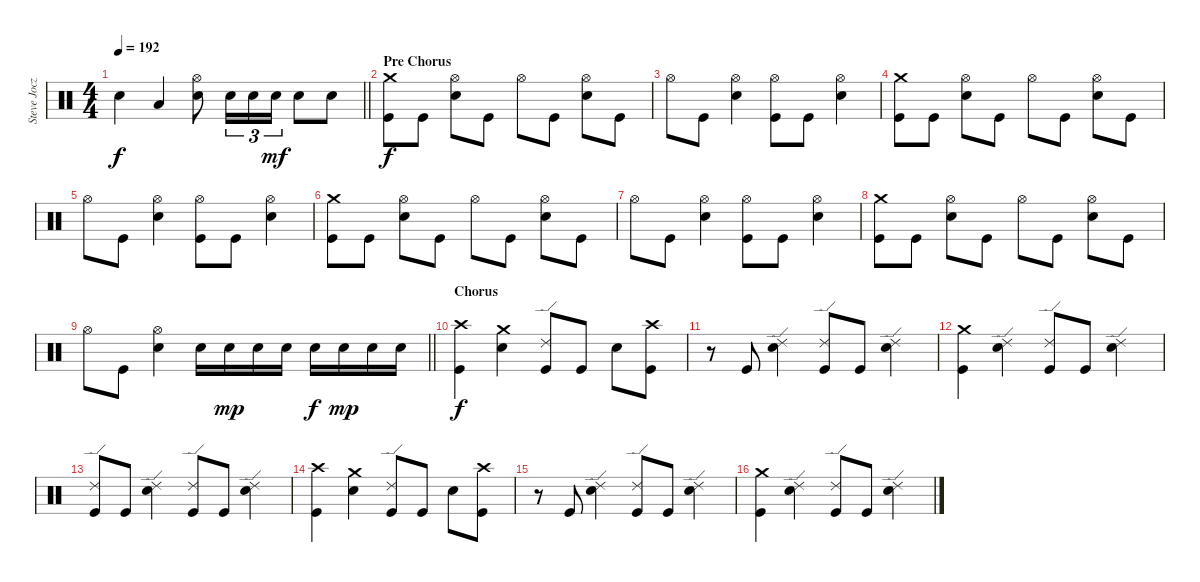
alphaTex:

\track ("Steve Jocz" "Steve Jocz") {instrument percussion}
\staff {score}
\articulation defaults
\ts (4 4)
\tempo 192
\clef neutral
\barLineRight lightlight
\ks c "Electric Snare (hit)".4{dy f volume 15} "Low Tom (hit)".4
("Hi-Hat (open)" "Electric Snare (hit)").8 "Electric Snare (hit)".16{tu (3 2)} "Electric Snare (hit)".16{tu (3 2)} "Electric Snare (hit)".16{tu (3 2) dy mf} "Electric Snare (hit)".8 "Electric Snare (hit)".8 |
\section ("" "Pre Chorus")
("Crash medium (hit)" "Kick (hit)").8{dy f} "Kick (hit)".8 ("Hi-Hat (open)" "Electric Snare (hit)").8 "Kick (hit)".8 "Hi-Hat (open)".8 "Kick (hit)".8 ("Hi-Hat (open)" "Electric Snare (hit)").8 "Kick (hit)".8 |
"Hi-Hat (open)".8 "Kick (hit)".8 ("Hi-Hat (open)" "Electric Snare (hit)").4 ("Hi-Hat (open)" "Kick (hit)").8 "Kick (hit)".8 ("Hi-Hat (open)" "Electric Snare (hit)").4 |
("Crash medium (hit)" "Kick (hit)").8 "Kick (hit)".8 ("Hi-Hat (open)" "Electric Snare (hit)").8 "Kick (hit)".8 "Hi-Hat (open)".8 "Kick (hit)".8 ("Hi-Hat (open)" "Electric Snare (hit)").8 "Kick (hit)".8 |
"Hi-Hat (open)".8 "Kick (hit)".8 ("Hi-Hat (open)" "Electric Snare (hit)").4 ("Hi-Hat (open)" "Kick (hit)").8 "Kick (hit)".8 ("Hi-Hat (open)" "Electric Snare (hit)").4 |
("Crash medium (hit)" "Kick (hit)").8 "Kick (hit)".8 ("Hi-Hat (open)" "Electric Snare (hit)").8 "Kick (hit)".8 "Hi-Hat (open)".8 "Kick (hit)".8 ("Hi-Hat (open)" "Electric Snare (hit)").8 "Kick (hit)".8 |
"Hi-Hat (open)".8 "Kick (hit)".8 ("Hi-Hat (open)" "Electric Snare (hit)").4 ("Hi-Hat (open)" "Kick (hit)").8 "Kick (hit)".8 ("Hi-Hat (open)" "Electric Snare (hit)").4 |
("Crash medium (hit)" "Kick (hit)").8 "Kick (hit)".8 ("Hi-Hat (open)" "Electric Snare (hit)").8 "Kick (hit)".8 "Hi-Hat (open)".8 "Kick (hit)".8 ("Hi-Hat (open)" "Electric Snare (hit)").8 "Kick (hit)".8 |
\barLineRight lightlight "Hi-Hat (open)".8 "Kick (hit)".8
("Hi-Hat (open)" "Electric Snare (hit)").4 "Electric Snare (hit)".16 "Electric Snare (hit)".16{dy mp} "Electric Snare (hit)".16 "Electric Snare (hit)".16 "Electric Snare (hit)".16{dy f} "Electric Snare (hit)".16{dy mp} "Electric Snare (hit)".16 "Electric Snare (hit)".16 |
\section ("" "Chorus")
("Crash high (hit)" "Kick (hit)").4{dy f} ("Crash medium (hit)" "Electric Snare (hit)").4 ("Ride (edge) 2" "Kick (hit)").8 "Kick (hit)".8 "Electric Snare (hit)".8 ("Crash high (hit)" "Kick (hit)").8 |
r.8 "Kick (hit)".8 ("Ride (edge) 2" "Electric Snare (hit)").4 ("Ride (edge) 2" "Kick (hit)").8 "Kick (hit)".8 ("Ride (edge) 2" "Electric Snare (hit)").4 |
("Crash medium (hit)" "Kick (hit)").4 ("Ride (edge) 2" "Electric Snare (hit)").4 ("Ride (edge) 2" "Kick (hit)").8 "Kick (hit)".8 ("Ride (edge) 2" "Electric Snare (hit)").4 |
("Ride (edge) 2" "Kick (hit)").8 "Kick (hit)".8 ("Ride (edge) 2" "Electric Snare (hit)").4 ("Ride (edge) 2" "Kick (hit)").8 "Kick (hit)".8 ("Ride (edge) 2" "Electric Snare (hit)").4 |
("Crash high (hit)" "Kick (hit)").4 ("Crash medium (hit)" "Electric Snare (hit)").4 ("Ride (edge) 2" "Kick (hit)").8 "Kick (hit)".8 "Electric Snare (hit)".8 ("Crash high (hit)" "Kick (hit)").8 |
r.8 "Kick (hit)".8 ("Ride (edge) 2" "Electric Snare (hit)").4 ("Ride (edge) 2" "Kick (hit)").8 "Kick (hit)".8 ("Ride (edge) 2" "Electric Snare (hit)").4 |
("Crash medium (hit)" "Kick (hit)").4 ("Ride (edge) 2" "Electric Snare (hit)").4 ("Ride (edge) 2" "Kick (hit)").8 "Kick (hit)".8 ("Ride (edge) 2" "Electric Snare (hit)").4
